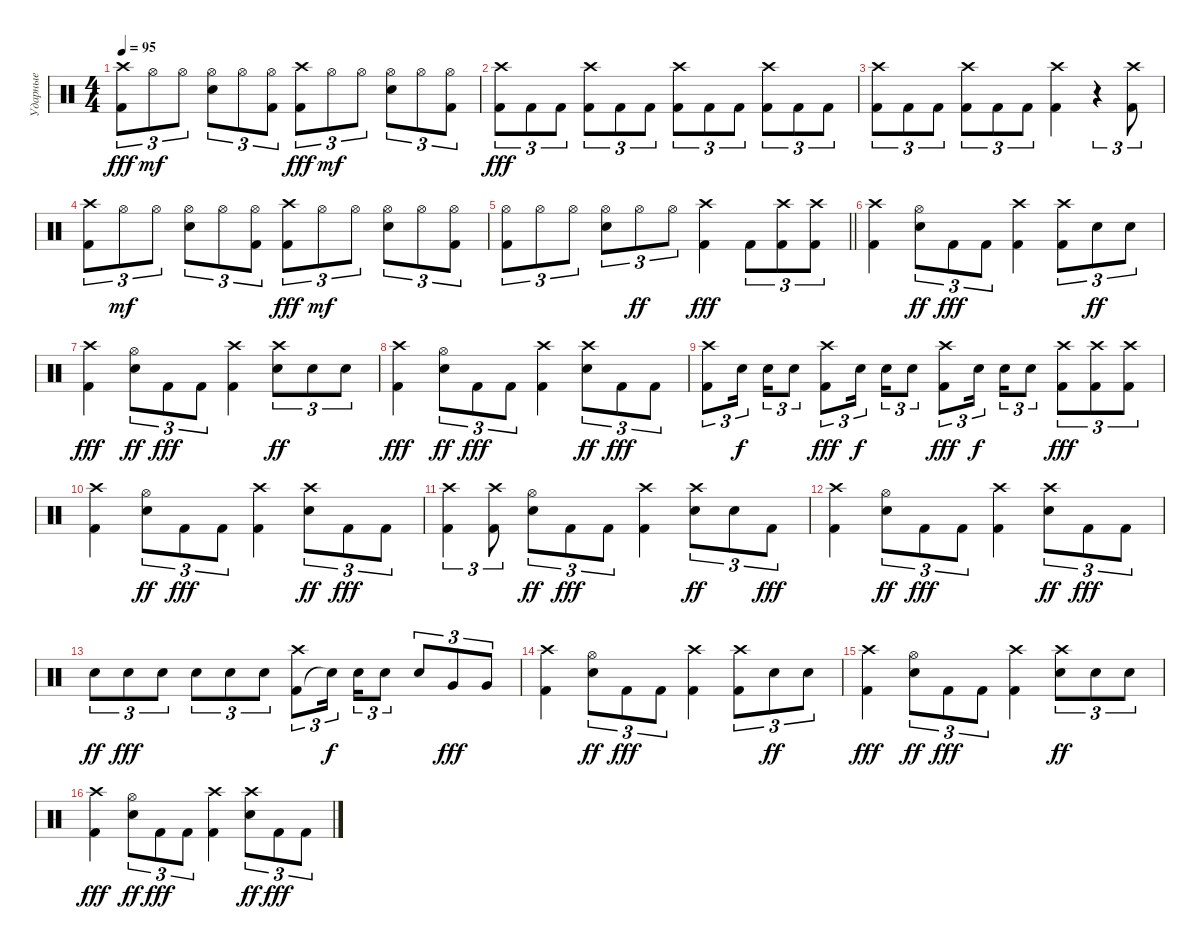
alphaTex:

\track ("Ударные" "Ударные") {instrument percussion}
\staff
\articulation defaults
\ts (4 4)
\tempo 95
\clef neutral
\ks c
("Kick (hit) 2" "Crash high (hit)").8{tu (3 2) dy fff} "Hi-Hat (open)".8{tu (3 2) dy mf} "Hi-Hat (open)".8{tu (3 2)} ("Snare (hit) 2" "Hi-Hat (open)").8{tu (3 2)} "Hi-Hat (open)".8{tu (3 2)} ("Kick (hit) 2" "Hi-Hat (open)").8{tu (3 2)} ("Kick (hit) 2" "Crash high (hit)").8{tu (3 2) dy fff} "Hi-Hat (open)".8{tu (3 2) dy mf} "Hi-Hat (open)".8{tu (3 2)} ("Snare (hit) 2" "Hi-Hat (open)").8{tu (3 2)} "Hi-Hat (open)".8{tu (3 2)} ("Kick (hit) 2" "Hi-Hat (open)").8{tu (3 2)} |
("Kick (hit) 2" "Crash high (hit)").8{tu (3 2) dy fff} "Kick (hit) 2".8{tu (3 2)} "Kick (hit) 2".8{tu (3 2)} ("Kick (hit) 2" "Crash high (hit)").8{tu (3 2)} "Kick (hit) 2".8{tu (3 2)} "Kick (hit) 2".8{tu (3 2)} ("Kick (hit) 2" "Crash high (hit)").8{tu (3 2)} "Kick (hit) 2".8{tu (3 2)} "Kick (hit) 2".8{tu (3 2)} ("Kick (hit) 2" "Crash high (hit)").8{tu (3 2)} "Kick (hit) 2".8{tu (3 2)} "Kick (hit) 2".8{tu (3 2)} |
("Kick (hit) 2" "Crash high (hit)").8{tu (3 2)} "Kick (hit) 2".8{tu (3 2)} "Kick (hit) 2".8{tu (3 2)} ("Kick (hit) 2" "Crash high (hit)").8{tu (3 2)} "Kick (hit) 2".8{tu (3 2)} "Kick (hit) 2".8{tu (3 2)} ("Kick (hit) 2" "Crash high (hit)").4 r.4{tu (3 2)} ("Kick (hit) 2" "Crash high (hit)").8{tu (3 2)} |
("Kick (hit) 2" "Crash high (hit)").8{tu (3 2)} "Hi-Hat (open)".8{tu (3 2) dy mf} "Hi-Hat (open)".8{tu (3 2)} ("Snare (hit) 2" "Hi-Hat (open)").8{tu (3 2)} "Hi-Hat (open)".8{tu (3 2)} ("Kick (hit) 2" "Hi-Hat (open)").8{tu (3 2)} ("Kick (hit) 2" "Crash high (hit)").8{tu (3 2) dy fff} "Hi-Hat (open)".8{tu (3 2) dy mf} "Hi-Hat (open)".8{tu (3 2)} ("Snare (hit) 2" "Hi-Hat (open)").8{tu (3 2)} "Hi-Hat (open)".8{tu (3 2)} ("Kick (hit) 2" "Hi-Hat (open)").8{tu (3 2)} |
\barLineRight lightlight
("Kick (hit) 2" "Hi-Hat (open)").8{tu (3 2)} "Hi-Hat (open)".8{tu (3 2)} "Hi-Hat (open)".8{tu (3 2)} ("Snare (hit) 2" "Hi-Hat (open)").8{tu (3 2)} "Hi-Hat (open)".8{tu (3 2) dy ff} "Hi-Hat (open)".8{tu (3 2)} ("Kick (hit) 2" "Crash high (hit)").4{dy fff} "Kick (hit) 2".8{tu (3 2)} ("Kick (hit) 2" "Crash high (hit)").8{tu (3 2)} ("Kick (hit) 2" "Crash high (hit)").8{tu (3 2)} |
("Kick (hit) 2" "Crash high (hit)").4 ("Snare (hit) 2" "Hi-Hat (open)").8{tu (3 2) dy ff} "Kick (hit) 2".8{tu (3 2) dy fff} "Kick (hit) 2".8{tu (3 2)} ("Kick (hit) 2" "Crash high (hit)").4 ("Kick (hit) 2" "Crash high (hit)").8{tu (3 2)} "Electric Snare (hit)".8{tu (3 2) dy ff} "Electric Snare (hit)".8{tu (3 2)} |
("Kick (hit) 2" "Crash high (hit)").4{dy fff} ("Snare (hit) 2" "Hi-Hat (open)").8{tu (3 2) dy ff} "Kick (hit) 2".8{tu (3 2) dy fff} "Kick (hit) 2".8{tu (3 2)} ("Kick (hit) 2" "Crash high (hit)").4 ("Snare (hit) 2" "Crash high (hit)").8{tu (3 2) dy ff} "Electric Snare (hit)".8{tu (3 2)} "Electric Snare (hit)".8{tu (3 2)} |
("Kick (hit) 2" "Crash high (hit)").4{dy fff} ("Snare (hit) 2" "Hi-Hat (open)").8{tu (3 2) dy ff} "Kick (hit) 2".8{tu (3 2) dy fff} "Kick (hit) 2".8{tu (3 2)} ("Kick (hit) 2" "Crash high (hit)").4 ("Snare (hit) 2" "Crash high (hit)").8{tu (3 2) dy ff} "Kick (hit) 2".8{tu (3 2) dy fff} "Kick (hit) 2".8{tu (3 2)} |
("Kick (hit) 2" "Crash high (hit)").8{tu (3 2)} "Snare (hit) 2".16{tu (3 2) dy f beam splitsecondary} "Snare (hit) 2".16{tu (3 2)} "Snare (hit) 2".8{tu (3 2)} ("Kick (hit) 2" "Crash high (hit)").8{tu (3 2) dy fff} "Snare (hit) 2".16{tu (3 2) dy f beam splitsecondary} "Snare (hit) 2".16{tu (3 2)} "Snare (hit) 2".8{tu (3 2)} ("Kick (hit) 2" "Crash high (hit)").8{tu (3 2) dy fff} "Snare (hit) 2".16{tu (3 2) dy f beam splitsecondary} "Snare (hit) 2".16{tu (3 2)} "Snare (hit) 2".8{tu (3 2)} ("Kick (hit) 2" "Crash high (hit)").8{tu (3 2) dy fff} ("Kick (hit) 2" "Crash high (hit)").8{tu (3 2)} ("Kick (hit) 2" "Crash high (hit)").8{tu (3 2)} |
("Kick (hit) 2" "Crash high (hit)").4 ("Snare (hit) 2" "Hi-Hat (open)").8{tu (3 2) dy ff} "Kick (hit) 2".8{tu (3 2) dy fff} "Kick (hit) 2".8{tu (3 2)} ("Kick (hit) 2" "Crash high (hit)").4 ("Snare (hit) 2" "Crash high (hit)").8{tu (3 2) dy ff} "Kick (hit) 2".8{tu (3 2) dy fff} "Kick (hit) 2".8{tu (3 2)} |
("Kick (hit) 2" "Crash high (hit)").4{tu (3 2)} ("Kick (hit) 2" "Crash high (hit)").8{tu (3 2)} ("Snare (hit) 2" "Hi-Hat (open)").8{tu (3 2) dy ff} "Kick (hit) 2".8{tu (3 2) dy fff} "Kick (hit) 2".8{tu (3 2)} ("Kick (hit) 2" "Crash high (hit)").4 ("Snare (hit) 2" "Crash high (hit)").8{tu (3 2) dy ff} "Snare (hit) 2".8{tu (3 2)} "Kick (hit) 2".8{tu (3 2) dy fff} |
("Kick (hit) 2" "Crash high (hit)").4 ("Snare (hit) 2" "Hi-Hat (open)").8{tu (3 2) dy ff} "Kick (hit) 2".8{tu (3 2) dy fff} "Kick (hit) 2".8{tu (3 2)} ("Kick (hit) 2" "Crash high (hit)").4 ("Snare (hit) 2" "Crash high (hit)").8{tu (3 2) dy ff} "Kick (hit) 2".8{tu (3 2) dy fff} "Kick (hit) 2".8{tu (3 2)} |
"Snare (hit) 2".8{tu (3 2) dy ff} "Snare (hit) 2".8{tu (3 2) dy fff} "Snare (hit) 2".8{tu (3 2)} "Snare (hit) 2".8{tu (3 2)} "Snare (hit) 2".8{tu (3 2)} "Snare (hit) 2".8{tu (3 2)} ("Kick (hit) 2" "Crash high (hit)").8{tu (3 2)} "Snare (hit)"{t}.16{tu (3 2) dy f beam splitsecondary} "Snare (hit) 2".16{tu (3 2)} "Snare (hit) 2".8{tu (3 2)} "Snare (hit) 2".8{tu (3 2)} "Very Low Tom (hit)".8{tu (3 2) dy fff} "Very Low Tom (hit)".8{tu (3 2)} |
("Kick (hit) 2" "Crash high (hit)").4 ("Snare (hit) 2" "Hi-Hat (open)").8{tu (3 2) dy ff} "Kick (hit) 2".8{tu (3 2) dy fff} "Kick (hit) 2".8{tu (3 2)} ("Kick (hit) 2" "Crash high (hit)").4 ("Kick (hit) 2" "Crash high (hit)").8{tu (3 2)} "Electric Snare (hit)".8{tu (3 2) dy ff} "Electric Snare (hit)".8{tu (3 2)} |
("Kick (hit) 2" "Crash high (hit)").4{dy fff} ("Snare (hit) 2" "Hi-Hat (open)").8{tu (3 2) dy ff} "Kick (hit) 2".8{tu (3 2) dy fff} "Kick (hit) 2".8{tu (3 2)} ("Kick (hit) 2" "Crash high (hit)").4 ("Snare (hit) 2" "Crash high (hit)").8{tu (3 2) dy ff} "Electric Snare (hit)".8{tu (3 2)} "Electric Snare (hit)".8{tu (3 2)} |
("Kick (hit) 2" "Crash high (hit)").4{dy fff} ("Snare (hit) 2" "Hi-Hat (open)").8{tu (3 2) dy ff} "Kick (hit) 2".8{tu (3 2) dy fff} "Kick (hit) 2".8{tu (3 2)} ("Kick (hit) 2" "Crash high (hit)").4 ("Snare (hit) 2" "Crash high (hit)").8{tu (3 2) dy ff} "Kick (hit) 2".8{tu (3 2) dy fff} "Kick (hit) 2".8{tu (3 2)}
